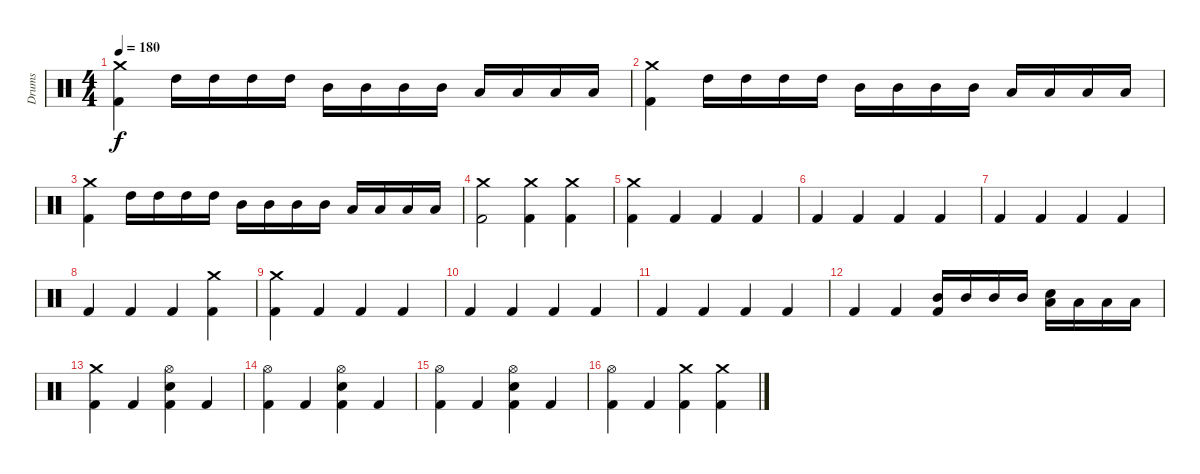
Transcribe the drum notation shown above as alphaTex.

\track ("Drums" "Drums") {instrument percussion}
\staff {score}
\articulation defaults
\ts (4 4)
\tempo 180
\clef neutral
\ks c
("Crash medium (hit)" "Kick (hit) 2").4{dy f} "High Tom (hit)".16 "High Tom (hit)".16 "High Tom (hit)".16 "High Tom (hit)".16 "Mid Tom (hit)".16 "Mid Tom (hit)".16 "Mid Tom (hit)".16 "Mid Tom (hit)".16 "Low Tom (hit)".16 "Low Tom (hit)".16 "Low Tom (hit)".16 "Low Tom (hit)".16 |
("Crash medium (hit)" "Kick (hit) 2").4 "High Tom (hit)".16 "High Tom (hit)".16 "High Tom (hit)".16 "High Tom (hit)".16 "Mid Tom (hit)".16 "Mid Tom (hit)".16 "Mid Tom (hit)".16 "Mid Tom (hit)".16 "Low Tom (hit)".16 "Low Tom (hit)".16 "Low Tom (hit)".16 "Low Tom (hit)".16 |
("Crash medium (hit)" "Kick (hit) 2").4 "High Tom (hit)".16 "High Tom (hit)".16 "High Tom (hit)".16 "High Tom (hit)".16 "Mid Tom (hit)".16 "Mid Tom (hit)".16 "Mid Tom (hit)".16 "Mid Tom (hit)".16 "Low Tom (hit)".16 "Low Tom (hit)".16 "Low Tom (hit)".16 "Low Tom (hit)".16 |
("Crash medium (hit)" "Kick (hit) 2").2 ("Crash medium (hit)" "Kick (hit) 2").4 ("Crash medium (hit)" "Kick (hit) 2").4 |
("Crash medium (hit)" "Kick (hit) 2").4 "Kick (hit) 2".4 "Kick (hit) 2".4 "Kick (hit) 2".4 |
"Kick (hit) 2".4 "Kick (hit) 2".4 "Kick (hit) 2".4 "Kick (hit) 2".4 |
"Kick (hit) 2".4 "Kick (hit) 2".4 "Kick (hit) 2".4 "Kick (hit) 2".4 |
"Kick (hit) 2".4 "Kick (hit) 2".4 "Kick (hit) 2".4 ("Crash medium (hit)" "Kick (hit) 2").4 |
("Crash medium (hit)" "Kick (hit) 2").4 "Kick (hit) 2".4 "Kick (hit) 2".4 "Kick (hit) 2".4 |
"Kick (hit) 2".4 "Kick (hit) 2".4 "Kick (hit) 2".4 "Kick (hit) 2".4 |
"Kick (hit) 2".4 "Kick (hit) 2".4 "Kick (hit) 2".4 "Kick (hit) 2".4 |
"Kick (hit) 2".4 "Kick (hit) 2".4 ("Mid Tom (hit)" "Kick (hit) 2").16 "Mid Tom (hit)".16 "Mid Tom (hit)".16 "Mid Tom (hit)".16 ("Low Tom (hit)" "Snare (hit)").16 "Low Tom (hit)".16 "Low Tom (hit)".16 "Low Tom (hit)".16 |
("Crash medium (hit)" "Kick (hit) 2").4 "Kick (hit) 2".4 ("Hi-Hat (open)" "Snare (hit) 2" "Kick (hit) 2").4 "Kick (hit) 2".4 |
("Hi-Hat (open)" "Kick (hit) 2").4 "Kick (hit) 2".4 ("Hi-Hat (open)" "Snare (hit) 2" "Kick (hit) 2").4 "Kick (hit) 2".4 |
("Hi-Hat (open)" "Kick (hit) 2").4 "Kick (hit) 2".4 ("Hi-Hat (open)" "Snare (hit) 2" "Kick (hit) 2").4 "Kick (hit) 2".4 |
("Hi-Hat (open)" "Kick (hit) 2").4 "Kick (hit) 2".4 ("Crash medium (hit)" "Kick (hit) 2").4 ("Crash medium (hit)" "Kick (hit) 2").4
